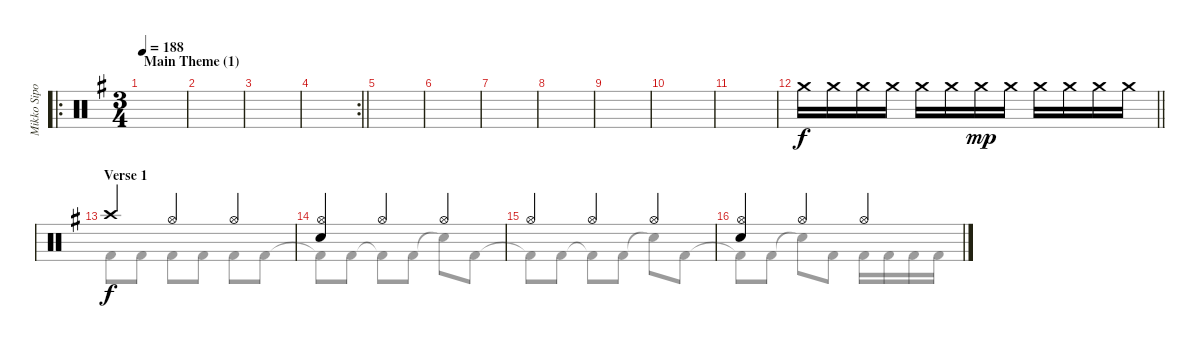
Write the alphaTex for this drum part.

\track ("Mikko Sipola (drums)" "Mikko Sipo") {instrument percussion}
\staff {score}
\articulation defaults
\voice
\ro
\ts (3 4)
\section ("" "Main Theme (1)")
\tempo 188
\clef neutral
\ks eminor
|
|
|
\rc 2
\barLineRight lightlight
|
|
|
|
|
|
|
|
\barLineRight lightlight "Crash medium (hit)".16 "Crash medium (hit)".16 "Crash medium (hit)".16 "Crash medium (hit)".16 "Crash medium (hit)".16 "Crash medium (hit)".16 "Crash medium (hit)".16{dy mp} "Crash medium (hit)".16 "Crash medium (hit)".16 "Crash medium (hit)".16 "Crash medium (hit)".16 "Crash medium (hit)".16
|
\section ("" "Verse 1")
"Crash high (hit)".4{dy f} "Hi-Hat (open)".4 "Hi-Hat (open)".4 |
("Hi-Hat (open)" "Electric Snare (hit)").4 "Hi-Hat (open)".4 "Hi-Hat (open)".4 |
"Hi-Hat (open)".4 "Hi-Hat (open)".4 "Hi-Hat (open)".4 |
("Hi-Hat (open)" "Electric Snare (hit)").4 "Hi-Hat (open)".4 "Hi-Hat (open)".4
\voice
\clef neutral
\ottava regular
\simile none
\ks eminor
|
|
|
\barLineRight lightlight
|
|
|
|
|
|
|
|
\barLineRight lightlight
|
"Kick (hit) 2".8 "Kick (hit) 2".8 "Kick (hit) 2".8 "Kick (hit) 2".8 "Kick (hit) 2".8 "Kick (hit) 2".8 |
"Kick (hit) 2"{t}.8 "Kick (hit) 2".8 "Kick (hit) 2"{t}.8 "Kick (hit) 2".8 "Snare (hit)"{t}.8 "Kick (hit) 2".8 |
"Kick (hit) 2"{t}.8 "Kick (hit) 2".8 "Kick (hit) 2"{t}.8 "Kick (hit) 2".8 "Snare (hit)"{t}.8 "Kick (hit) 2".8 |
"Kick (hit) 2"{t}.8 "Kick (hit) 2".8 "Snare (hit)"{t}.8 "Kick (hit) 2".8 "Kick (hit) 2".16 "Kick (hit) 2".16 "Kick (hit) 2".16 "Kick (hit) 2".16
